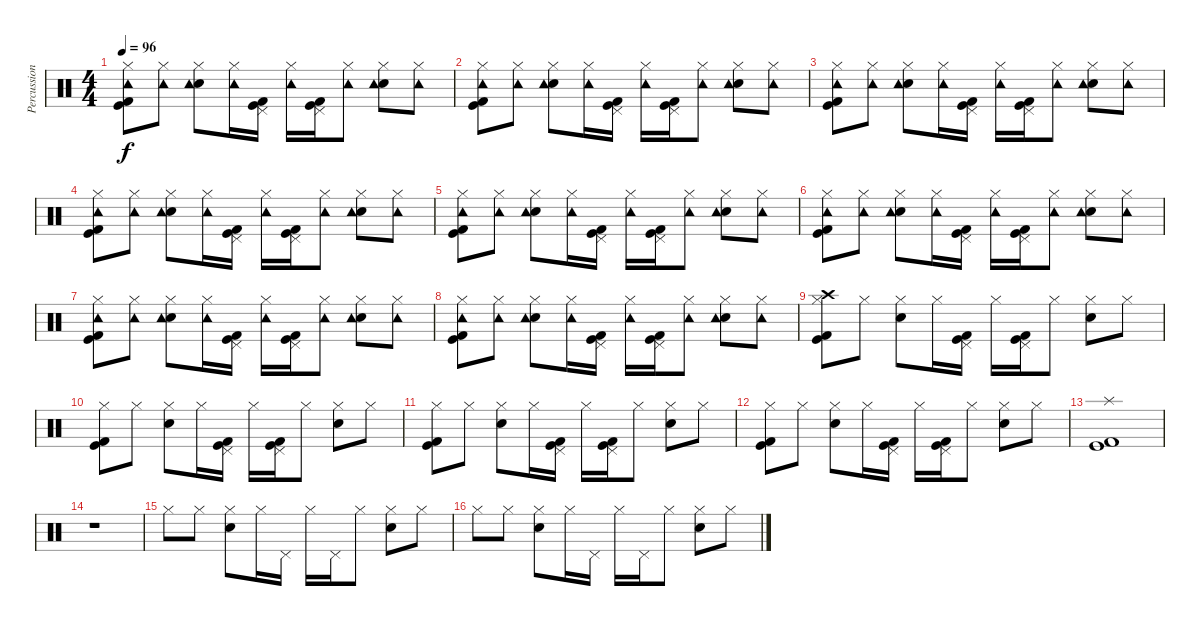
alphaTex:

\track ("Percussions" "Percussion") {instrument percussion}
\staff {score}
\articulation defaults
\ts (4 4)
\tempo 96
\clef neutral
\ks c
("Kick (hit) 2" "Hi-Hat (closed)" "Tambourine (hit)" "Kick (hit)").8{dy f} ("Hi-Hat (closed)" "Tambourine (hit)").8 ("Hi-Hat (closed)" "Snare (hit) 2" "Tambourine (hit)").8 ("Hi-Hat (closed)" "Tambourine (hit)").16 ("Kick (hit) 2" "Pedal Hi-Hat (hit)" "Kick (hit)").16 ("Hi-Hat (closed)" "Tambourine (hit)").16 ("Kick (hit) 2" "Pedal Hi-Hat (hit)" "Kick (hit)").16 ("Hi-Hat (closed)" "Tambourine (hit)").8 ("Hi-Hat (closed)" "Snare (hit) 2" "Tambourine (hit)").8 ("Hi-Hat (closed)" "Tambourine (hit)").8 |
("Kick (hit) 2" "Hi-Hat (closed)" "Tambourine (hit)" "Kick (hit)").8 ("Hi-Hat (closed)" "Tambourine (hit)").8 ("Hi-Hat (closed)" "Snare (hit) 2" "Tambourine (hit)").8 ("Hi-Hat (closed)" "Tambourine (hit)").16 ("Kick (hit) 2" "Pedal Hi-Hat (hit)" "Kick (hit)").16 ("Hi-Hat (closed)" "Tambourine (hit)").16 ("Kick (hit) 2" "Pedal Hi-Hat (hit)" "Kick (hit)").16 ("Hi-Hat (closed)" "Tambourine (hit)").8 ("Hi-Hat (closed)" "Snare (hit) 2" "Tambourine (hit)").8 ("Hi-Hat (closed)" "Tambourine (hit)").8 |
("Kick (hit) 2" "Hi-Hat (closed)" "Tambourine (hit)" "Kick (hit)").8 ("Hi-Hat (closed)" "Tambourine (hit)").8 ("Hi-Hat (closed)" "Snare (hit) 2" "Tambourine (hit)").8 ("Hi-Hat (closed)" "Tambourine (hit)").16 ("Kick (hit) 2" "Pedal Hi-Hat (hit)" "Kick (hit)").16 ("Hi-Hat (closed)" "Tambourine (hit)").16 ("Kick (hit) 2" "Pedal Hi-Hat (hit)" "Kick (hit)").16 ("Hi-Hat (closed)" "Tambourine (hit)").8 ("Hi-Hat (closed)" "Snare (hit) 2" "Tambourine (hit)").8 ("Hi-Hat (closed)" "Tambourine (hit)").8 |
("Kick (hit) 2" "Hi-Hat (closed)" "Tambourine (hit)" "Kick (hit)").8 ("Hi-Hat (closed)" "Tambourine (hit)").8 ("Hi-Hat (closed)" "Snare (hit) 2" "Tambourine (hit)").8 ("Hi-Hat (closed)" "Tambourine (hit)").16 ("Kick (hit) 2" "Pedal Hi-Hat (hit)" "Kick (hit)").16 ("Hi-Hat (closed)" "Tambourine (hit)").16 ("Kick (hit) 2" "Pedal Hi-Hat (hit)" "Kick (hit)").16 ("Hi-Hat (closed)" "Tambourine (hit)").8 ("Hi-Hat (closed)" "Snare (hit) 2" "Tambourine (hit)").8 ("Hi-Hat (closed)" "Tambourine (hit)").8 |
("Kick (hit) 2" "Hi-Hat (closed)" "Tambourine (hit)" "Kick (hit)").8 ("Hi-Hat (closed)" "Tambourine (hit)").8 ("Hi-Hat (closed)" "Snare (hit) 2" "Tambourine (hit)").8 ("Hi-Hat (closed)" "Tambourine (hit)").16 ("Kick (hit) 2" "Pedal Hi-Hat (hit)" "Kick (hit)").16 ("Hi-Hat (closed)" "Tambourine (hit)").16 ("Kick (hit) 2" "Pedal Hi-Hat (hit)" "Kick (hit)").16 ("Hi-Hat (closed)" "Tambourine (hit)").8 ("Hi-Hat (closed)" "Snare (hit) 2" "Tambourine (hit)").8 ("Hi-Hat (closed)" "Tambourine (hit)").8 |
("Kick (hit) 2" "Hi-Hat (closed)" "Tambourine (hit)" "Kick (hit)").8 ("Hi-Hat (closed)" "Tambourine (hit)").8 ("Hi-Hat (closed)" "Snare (hit) 2" "Tambourine (hit)").8 ("Hi-Hat (closed)" "Tambourine (hit)").16 ("Kick (hit) 2" "Pedal Hi-Hat (hit)" "Kick (hit)").16 ("Hi-Hat (closed)" "Tambourine (hit)").16 ("Kick (hit) 2" "Pedal Hi-Hat (hit)" "Kick (hit)").16 ("Hi-Hat (closed)" "Tambourine (hit)").8 ("Hi-Hat (closed)" "Snare (hit) 2" "Tambourine (hit)").8 ("Hi-Hat (closed)" "Tambourine (hit)").8 |
("Kick (hit) 2" "Hi-Hat (closed)" "Tambourine (hit)" "Kick (hit)").8 ("Hi-Hat (closed)" "Tambourine (hit)").8 ("Hi-Hat (closed)" "Snare (hit) 2" "Tambourine (hit)").8 ("Hi-Hat (closed)" "Tambourine (hit)").16 ("Kick (hit) 2" "Pedal Hi-Hat (hit)" "Kick (hit)").16 ("Hi-Hat (closed)" "Tambourine (hit)").16 ("Kick (hit) 2" "Pedal Hi-Hat (hit)" "Kick (hit)").16 ("Hi-Hat (closed)" "Tambourine (hit)").8 ("Hi-Hat (closed)" "Snare (hit) 2" "Tambourine (hit)").8 ("Hi-Hat (closed)" "Tambourine (hit)").8 |
("Kick (hit) 2" "Hi-Hat (closed)" "Tambourine (hit)" "Kick (hit)").8 ("Hi-Hat (closed)" "Tambourine (hit)").8 ("Hi-Hat (closed)" "Snare (hit) 2" "Tambourine (hit)").8 ("Hi-Hat (closed)" "Tambourine (hit)").16 ("Kick (hit) 2" "Pedal Hi-Hat (hit)" "Kick (hit)").16 ("Hi-Hat (closed)" "Tambourine (hit)").16 ("Kick (hit) 2" "Pedal Hi-Hat (hit)" "Kick (hit)").16 ("Hi-Hat (closed)" "Tambourine (hit)").8 ("Hi-Hat (closed)" "Snare (hit) 2" "Tambourine (hit)").8 ("Hi-Hat (closed)" "Tambourine (hit)").8 |
("Kick (hit) 2" "Hi-Hat (closed)" "Crash high (hit)" "Kick (hit)").8 "Hi-Hat (closed)".8 ("Hi-Hat (closed)" "Snare (hit) 2").8 "Hi-Hat (closed)".16 ("Kick (hit) 2" "Pedal Hi-Hat (hit)" "Kick (hit)").16 "Hi-Hat (closed)".16 ("Kick (hit) 2" "Pedal Hi-Hat (hit)" "Kick (hit)").16 "Hi-Hat (closed)".8 ("Hi-Hat (closed)" "Snare (hit) 2").8 "Hi-Hat (closed)".8 |
("Kick (hit) 2" "Hi-Hat (closed)" "Kick (hit)").8 "Hi-Hat (closed)".8 ("Hi-Hat (closed)" "Snare (hit) 2").8 "Hi-Hat (closed)".16 ("Kick (hit) 2" "Pedal Hi-Hat (hit)" "Kick (hit)").16 "Hi-Hat (closed)".16 ("Kick (hit) 2" "Pedal Hi-Hat (hit)" "Kick (hit)").16 "Hi-Hat (closed)".8 ("Hi-Hat (closed)" "Snare (hit) 2").8 "Hi-Hat (closed)".8 |
("Kick (hit) 2" "Hi-Hat (closed)" "Kick (hit)").8 "Hi-Hat (closed)".8 ("Hi-Hat (closed)" "Snare (hit) 2").8 "Hi-Hat (closed)".16 ("Kick (hit) 2" "Pedal Hi-Hat (hit)" "Kick (hit)").16 "Hi-Hat (closed)".16 ("Kick (hit) 2" "Pedal Hi-Hat (hit)" "Kick (hit)").16 "Hi-Hat (closed)".8 ("Hi-Hat (closed)" "Snare (hit) 2").8 "Hi-Hat (closed)".8 |
("Kick (hit) 2" "Hi-Hat (closed)" "Kick (hit)").8 "Hi-Hat (closed)".8 ("Hi-Hat (closed)" "Snare (hit) 2").8 "Hi-Hat (closed)".16 ("Kick (hit) 2" "Pedal Hi-Hat (hit)" "Kick (hit)").16 "Hi-Hat (closed)".16 ("Kick (hit) 2" "Pedal Hi-Hat (hit)" "Kick (hit)").16 "Hi-Hat (closed)".8 ("Hi-Hat (closed)" "Snare (hit) 2").8 "Hi-Hat (closed)".8 |
("Kick (hit) 2" "Splash (hit)" "Kick (hit)").1 |
r.1 |
"Hi-Hat (closed)".8 "Hi-Hat (closed)".8 ("Hi-Hat (closed)" "Snare (hit) 2").8 "Hi-Hat (closed)".16 "Pedal Hi-Hat (hit)".16 "Hi-Hat (closed)".16 "Pedal Hi-Hat (hit)".16 "Hi-Hat (closed)".8 ("Hi-Hat (closed)" "Snare (hit) 2").8 "Hi-Hat (closed)".8 |
"Hi-Hat (closed)".8 "Hi-Hat (closed)".8 ("Hi-Hat (closed)" "Snare (hit) 2").8 "Hi-Hat (closed)".16 "Pedal Hi-Hat (hit)".16 "Hi-Hat (closed)".16 "Pedal Hi-Hat (hit)".16 "Hi-Hat (closed)".8 ("Hi-Hat (closed)" "Snare (hit) 2").8 "Hi-Hat (closed)".8
